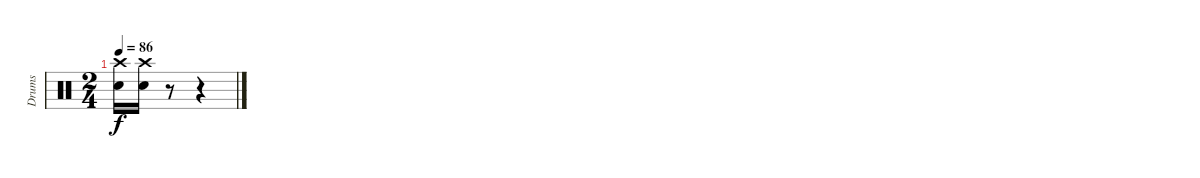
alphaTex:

\track ("Drums" "Drums") {instrument percussion}
\staff {score}
\articulation defaults
\ts (2 4)
\tempo 86
\clef neutral
\ks c
("Crash high (hit)" "Snare (hit) 2").16{dy f} ("Crash high (hit)" "Snare (hit) 2").16 r.8 r.4
